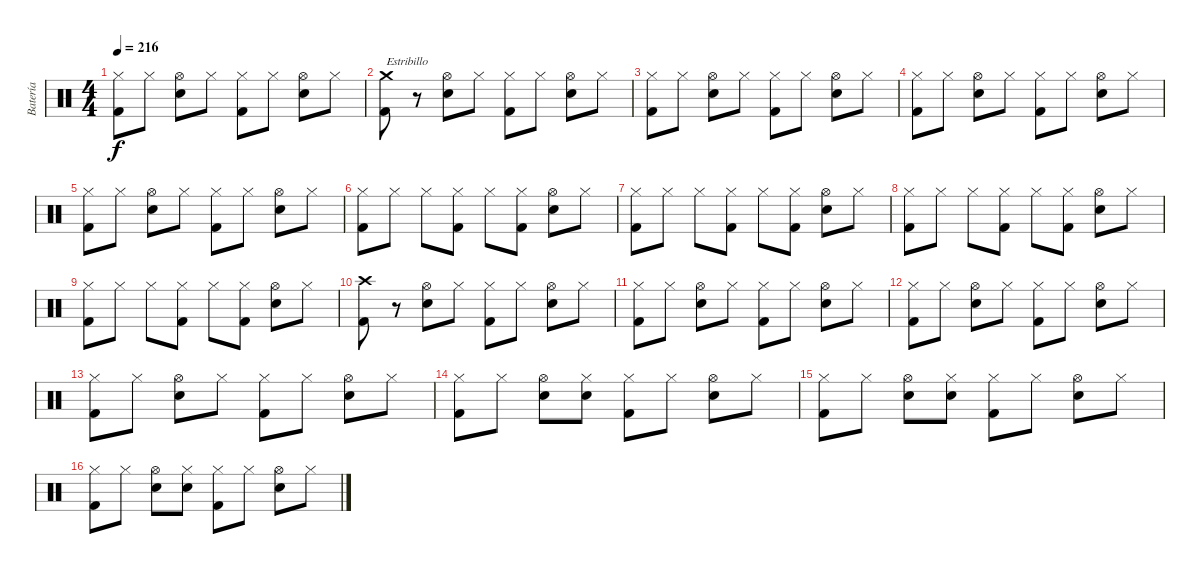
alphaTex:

\track ("Batería" "Batería") {instrument percussion}
\staff {score}
\articulation defaults
\ts (4 4)
\tempo 216
\clef neutral
\ks c
("Kick (hit) 2" "Hi-Hat (closed)").8{dy f} "Hi-Hat (closed)".8 ("Electric Snare (hit)" "Hi-Hat (open)").8 "Hi-Hat (closed)".8 ("Kick (hit) 2" "Hi-Hat (closed)").8 "Hi-Hat (closed)".8 ("Electric Snare (hit)" "Hi-Hat (open)").8 "Hi-Hat (closed)".8 |
("Kick (hit) 2" "Crash medium (hit)").8{txt "Estribillo"} r.8 ("Electric Snare (hit)" "Hi-Hat (open)").8 "Hi-Hat (closed)".8 ("Kick (hit) 2" "Hi-Hat (closed)").8 "Hi-Hat (closed)".8 ("Electric Snare (hit)" "Hi-Hat (open)").8 "Hi-Hat (closed)".8 |
("Kick (hit) 2" "Hi-Hat (closed)").8 "Hi-Hat (closed)".8 ("Electric Snare (hit)" "Hi-Hat (open)").8 "Hi-Hat (closed)".8 ("Kick (hit) 2" "Hi-Hat (closed)").8 "Hi-Hat (closed)".8 ("Electric Snare (hit)" "Hi-Hat (open)").8 "Hi-Hat (closed)".8 |
("Kick (hit) 2" "Hi-Hat (closed)").8 "Hi-Hat (closed)".8 ("Electric Snare (hit)" "Hi-Hat (open)").8 "Hi-Hat (closed)".8 ("Kick (hit) 2" "Hi-Hat (closed)").8 "Hi-Hat (closed)".8 ("Electric Snare (hit)" "Hi-Hat (open)").8 "Hi-Hat (closed)".8 |
("Kick (hit) 2" "Hi-Hat (closed)").8 "Hi-Hat (closed)".8 ("Electric Snare (hit)" "Hi-Hat (open)").8 "Hi-Hat (closed)".8 ("Kick (hit) 2" "Hi-Hat (closed)").8 "Hi-Hat (closed)".8 ("Electric Snare (hit)" "Hi-Hat (open)").8 "Hi-Hat (closed)".8 |
("Kick (hit) 2" "Hi-Hat (closed)").8 "Hi-Hat (closed)".8 "Hi-Hat (closed)".8 ("Kick (hit) 2" "Hi-Hat (closed)").8 "Hi-Hat (closed)".8 ("Kick (hit) 2" "Hi-Hat (closed)").8 ("Electric Snare (hit)" "Hi-Hat (open)").8 "Hi-Hat (closed)".8 |
("Kick (hit) 2" "Hi-Hat (closed)").8 "Hi-Hat (closed)".8 "Hi-Hat (closed)".8 ("Kick (hit) 2" "Hi-Hat (closed)").8 "Hi-Hat (closed)".8 ("Kick (hit) 2" "Hi-Hat (closed)").8 ("Electric Snare (hit)" "Hi-Hat (open)").8 "Hi-Hat (closed)".8 |
("Kick (hit) 2" "Hi-Hat (closed)").8 "Hi-Hat (closed)".8 "Hi-Hat (closed)".8 ("Kick (hit) 2" "Hi-Hat (closed)").8 "Hi-Hat (closed)".8 ("Kick (hit) 2" "Hi-Hat (closed)").8 ("Electric Snare (hit)" "Hi-Hat (open)").8 "Hi-Hat (closed)".8 |
("Kick (hit) 2" "Hi-Hat (closed)").8 "Hi-Hat (closed)".8 "Hi-Hat (closed)".8 ("Kick (hit) 2" "Hi-Hat (closed)").8 "Hi-Hat (closed)".8 ("Kick (hit) 2" "Hi-Hat (closed)").8 ("Electric Snare (hit)" "Hi-Hat (open)").8 "Hi-Hat (closed)".8 |
("Kick (hit) 2" "Crash high (hit)").8 r.8 ("Electric Snare (hit)" "Hi-Hat (open)").8 "Hi-Hat (closed)".8 ("Kick (hit) 2" "Hi-Hat (closed)").8 "Hi-Hat (closed)".8 ("Electric Snare (hit)" "Hi-Hat (open)").8 "Hi-Hat (closed)".8 |
("Kick (hit) 2" "Hi-Hat (closed)").8 "Hi-Hat (closed)".8 ("Electric Snare (hit)" "Hi-Hat (open)").8 "Hi-Hat (closed)".8 ("Kick (hit) 2" "Hi-Hat (closed)").8 "Hi-Hat (closed)".8 ("Electric Snare (hit)" "Hi-Hat (open)").8 "Hi-Hat (closed)".8 |
("Kick (hit) 2" "Hi-Hat (closed)").8 "Hi-Hat (closed)".8 ("Electric Snare (hit)" "Hi-Hat (open)").8 "Hi-Hat (closed)".8 ("Kick (hit) 2" "Hi-Hat (closed)").8 "Hi-Hat (closed)".8 ("Electric Snare (hit)" "Hi-Hat (open)").8 "Hi-Hat (closed)".8 |
("Kick (hit) 2" "Hi-Hat (closed)").8 "Hi-Hat (closed)".8 ("Electric Snare (hit)" "Hi-Hat (open)").8 "Hi-Hat (closed)".8 ("Kick (hit) 2" "Hi-Hat (closed)").8 "Hi-Hat (closed)".8 ("Electric Snare (hit)" "Hi-Hat (open)").8 "Hi-Hat (closed)".8 |
("Kick (hit) 2" "Hi-Hat (closed)").8 "Hi-Hat (closed)".8 ("Electric Snare (hit)" "Hi-Hat (open)").8 ("Electric Snare (hit)" "Hi-Hat (closed)").8 ("Kick (hit) 2" "Hi-Hat (closed)").8 "Hi-Hat (closed)".8 ("Electric Snare (hit)" "Hi-Hat (open)").8 "Hi-Hat (closed)".8 |
("Kick (hit) 2" "Hi-Hat (closed)").8 "Hi-Hat (closed)".8 ("Electric Snare (hit)" "Hi-Hat (open)").8 ("Electric Snare (hit)" "Hi-Hat (closed)").8 ("Kick (hit) 2" "Hi-Hat (closed)").8 "Hi-Hat (closed)".8 ("Electric Snare (hit)" "Hi-Hat (open)").8 "Hi-Hat (closed)".8 |
("Kick (hit) 2" "Hi-Hat (closed)").8 "Hi-Hat (closed)".8 ("Electric Snare (hit)" "Hi-Hat (open)").8 ("Electric Snare (hit)" "Hi-Hat (closed)").8 ("Kick (hit) 2" "Hi-Hat (closed)").8 "Hi-Hat (closed)".8 ("Electric Snare (hit)" "Hi-Hat (open)").8 "Hi-Hat (closed)".8
